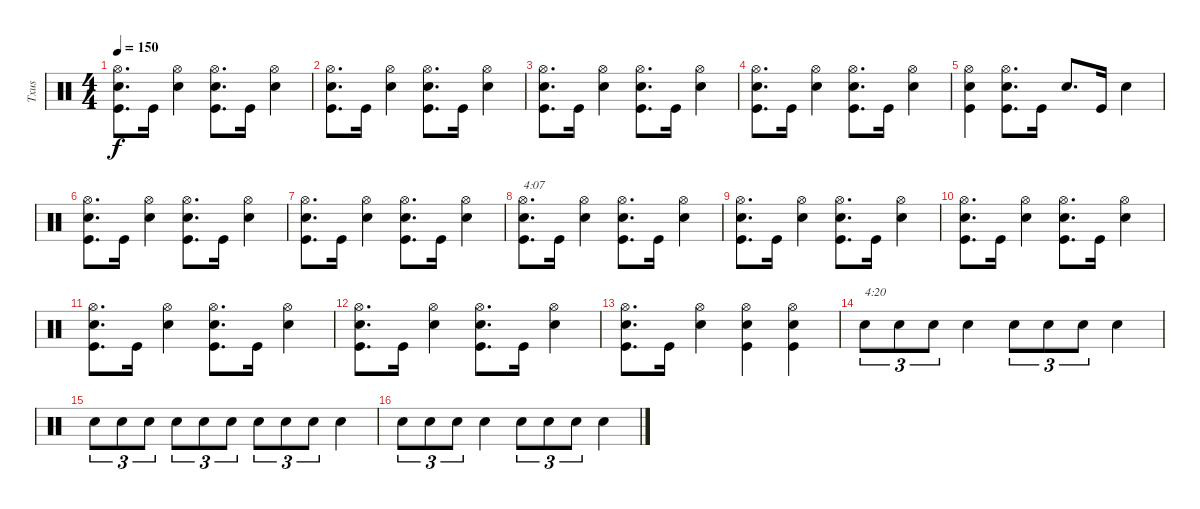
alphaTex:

\track ("Txus" "Txus") {instrument percussion}
\staff {score}
\articulation defaults
\ts (4 4)
\tempo 150
\clef neutral
\ks c
("Kick (hit)" "Snare (hit) 2" "Hi-Hat (open)").8{d dy f} "Kick (hit)".16 ("Snare (hit) 2" "Hi-Hat (open)").4 ("Kick (hit)" "Snare (hit) 2" "Hi-Hat (open)").8{d} "Kick (hit)".16 ("Snare (hit) 2" "Hi-Hat (open)").4 |
("Kick (hit)" "Snare (hit) 2" "Hi-Hat (open)").8{d} "Kick (hit)".16 ("Snare (hit) 2" "Hi-Hat (open)").4 ("Kick (hit)" "Snare (hit) 2" "Hi-Hat (open)").8{d} "Kick (hit)".16 ("Snare (hit) 2" "Hi-Hat (open)").4 |
("Kick (hit)" "Snare (hit) 2" "Hi-Hat (open)").8{d} "Kick (hit)".16 ("Snare (hit) 2" "Hi-Hat (open)").4 ("Kick (hit)" "Snare (hit) 2" "Hi-Hat (open)").8{d} "Kick (hit)".16 ("Snare (hit) 2" "Hi-Hat (open)").4 |
("Kick (hit)" "Snare (hit) 2" "Hi-Hat (open)").8{d} "Kick (hit)".16 ("Snare (hit) 2" "Hi-Hat (open)").4 ("Kick (hit)" "Snare (hit) 2" "Hi-Hat (open)").8{d} "Kick (hit)".16 ("Snare (hit) 2" "Hi-Hat (open)").4 |
("Kick (hit)" "Snare (hit) 2" "Hi-Hat (open)").4 ("Kick (hit)" "Snare (hit) 2" "Hi-Hat (open)").8{d} "Kick (hit)".16 "Snare (hit) 2".8{d} "Kick (hit)".16 "Snare (hit) 2".4 |
("Kick (hit)" "Snare (hit) 2" "Hi-Hat (open)").8{d} "Kick (hit)".16 ("Snare (hit) 2" "Hi-Hat (open)").4 ("Kick (hit)" "Snare (hit) 2" "Hi-Hat (open)").8{d} "Kick (hit)".16 ("Snare (hit) 2" "Hi-Hat (open)").4 |
("Kick (hit)" "Snare (hit) 2" "Hi-Hat (open)").8{d} "Kick (hit)".16 ("Snare (hit) 2" "Hi-Hat (open)").4 ("Kick (hit)" "Snare (hit) 2" "Hi-Hat (open)").8{d} "Kick (hit)".16 ("Snare (hit) 2" "Hi-Hat (open)").4 |
("Kick (hit)" "Snare (hit) 2" "Hi-Hat (open)").8{d txt "4:07"} "Kick (hit)".16 ("Snare (hit) 2" "Hi-Hat (open)").4 ("Kick (hit)" "Snare (hit) 2" "Hi-Hat (open)").8{d} "Kick (hit)".16 ("Snare (hit) 2" "Hi-Hat (open)").4 |
("Kick (hit)" "Snare (hit) 2" "Hi-Hat (open)").8{d} "Kick (hit)".16 ("Snare (hit) 2" "Hi-Hat (open)").4 ("Kick (hit)" "Snare (hit) 2" "Hi-Hat (open)").8{d} "Kick (hit)".16 ("Snare (hit) 2" "Hi-Hat (open)").4 |
("Kick (hit)" "Snare (hit) 2" "Hi-Hat (open)").8{d} "Kick (hit)".16 ("Snare (hit) 2" "Hi-Hat (open)").4 ("Kick (hit)" "Snare (hit) 2" "Hi-Hat (open)").8{d} "Kick (hit)".16 ("Snare (hit) 2" "Hi-Hat (open)").4 |
("Kick (hit)" "Snare (hit) 2" "Hi-Hat (open)").8{d} "Kick (hit)".16 ("Snare (hit) 2" "Hi-Hat (open)").4 ("Kick (hit)" "Snare (hit) 2" "Hi-Hat (open)").8{d} "Kick (hit)".16 ("Snare (hit) 2" "Hi-Hat (open)").4 |
("Kick (hit)" "Snare (hit) 2" "Hi-Hat (open)").8{d} "Kick (hit)".16 ("Snare (hit) 2" "Hi-Hat (open)").4 ("Kick (hit)" "Snare (hit) 2" "Hi-Hat (open)").8{d} "Kick (hit)".16 ("Snare (hit) 2" "Hi-Hat (open)").4 |
("Kick (hit)" "Snare (hit) 2" "Hi-Hat (open)").8{d} "Kick (hit)".16 ("Snare (hit) 2" "Hi-Hat (open)").4 ("Kick (hit)" "Snare (hit) 2" "Hi-Hat (open)").4 ("Kick (hit)" "Snare (hit) 2" "Hi-Hat (open)").4 |
"Snare (hit) 2".8{tu (3 2) txt "4:20"} "Snare (hit) 2".8{tu (3 2)} "Snare (hit) 2".8{tu (3 2)} "Snare (hit) 2".4 "Snare (hit) 2".8{tu (3 2)} "Snare (hit) 2".8{tu (3 2)} "Snare (hit) 2".8{tu (3 2)} "Snare (hit) 2".4 |
"Snare (hit) 2".8{tu (3 2)} "Snare (hit) 2".8{tu (3 2)} "Snare (hit) 2".8{tu (3 2)} "Snare (hit) 2".8{tu (3 2)} "Snare (hit) 2".8{tu (3 2)} "Snare (hit) 2".8{tu (3 2)} "Snare (hit) 2".8{tu (3 2)} "Snare (hit) 2".8{tu (3 2)} "Snare (hit) 2".8{tu (3 2)} "Snare (hit) 2".4 |
"Snare (hit) 2".8{tu (3 2)} "Snare (hit) 2".8{tu (3 2)} "Snare (hit) 2".8{tu (3 2)} "Snare (hit) 2".4 "Snare (hit) 2".8{tu (3 2)} "Snare (hit) 2".8{tu (3 2)} "Snare (hit) 2".8{tu (3 2)} "Snare (hit) 2".4
